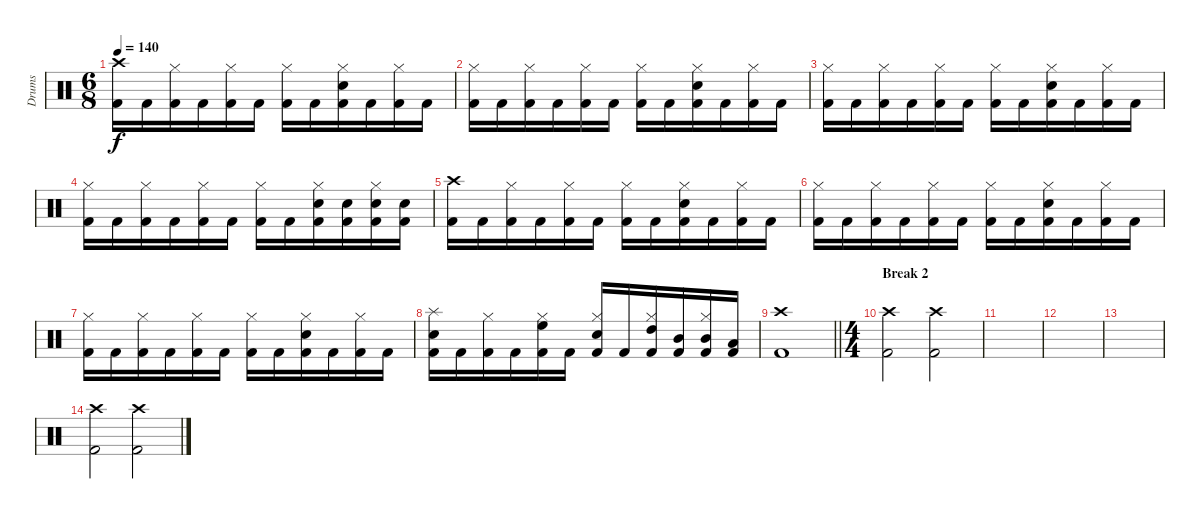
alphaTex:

\track ("Drums" "Drums") {instrument percussion}
\staff {score}
\articulation defaults
\ts (6 8)
\tempo 140
\clef neutral
\ks c
("Kick (hit) 2" "Crash high (hit)").16{dy f} "Kick (hit) 2".16 ("Kick (hit) 2" "Hi-Hat (closed)").16 "Kick (hit) 2".16 ("Kick (hit) 2" "Hi-Hat (closed)").16 "Kick (hit) 2".16 ("Kick (hit) 2" "Hi-Hat (closed)").16 "Kick (hit) 2".16 ("Kick (hit) 2" "Hi-Hat (closed)" "Electric Snare (hit)").16 "Kick (hit) 2".16 ("Kick (hit) 2" "Hi-Hat (closed)").16 "Kick (hit) 2".16 |
("Kick (hit) 2" "Hi-Hat (closed)").16 "Kick (hit) 2".16 ("Kick (hit) 2" "Hi-Hat (closed)").16 "Kick (hit) 2".16 ("Kick (hit) 2" "Hi-Hat (closed)").16 "Kick (hit) 2".16 ("Kick (hit) 2" "Hi-Hat (closed)").16 "Kick (hit) 2".16 ("Kick (hit) 2" "Hi-Hat (closed)" "Electric Snare (hit)").16 "Kick (hit) 2".16 ("Kick (hit) 2" "Hi-Hat (closed)").16 "Kick (hit) 2".16 |
("Kick (hit) 2" "Hi-Hat (closed)").16 "Kick (hit) 2".16 ("Kick (hit) 2" "Hi-Hat (closed)").16 "Kick (hit) 2".16 ("Kick (hit) 2" "Hi-Hat (closed)").16 "Kick (hit) 2".16 ("Kick (hit) 2" "Hi-Hat (closed)").16 "Kick (hit) 2".16 ("Kick (hit) 2" "Hi-Hat (closed)" "Electric Snare (hit)").16 "Kick (hit) 2".16 ("Kick (hit) 2" "Hi-Hat (closed)").16 "Kick (hit) 2".16 |
("Kick (hit) 2" "Hi-Hat (closed)").16 "Kick (hit) 2".16 ("Kick (hit) 2" "Hi-Hat (closed)").16 "Kick (hit) 2".16 ("Kick (hit) 2" "Hi-Hat (closed)").16 "Kick (hit) 2".16 ("Kick (hit) 2" "Hi-Hat (closed)").16 "Kick (hit) 2".16 ("Kick (hit) 2" "Hi-Hat (closed)" "Electric Snare (hit)").16 ("Kick (hit) 2" "Electric Snare (hit)").16 ("Kick (hit) 2" "Hi-Hat (closed)" "Electric Snare (hit)").16 ("Kick (hit) 2" "Electric Snare (hit)").16 |
("Kick (hit) 2" "Crash high (hit)").16 "Kick (hit) 2".16 ("Kick (hit) 2" "Hi-Hat (closed)").16 "Kick (hit) 2".16 ("Kick (hit) 2" "Hi-Hat (closed)").16 "Kick (hit) 2".16 ("Kick (hit) 2" "Hi-Hat (closed)").16 "Kick (hit) 2".16 ("Kick (hit) 2" "Hi-Hat (closed)" "Electric Snare (hit)").16 "Kick (hit) 2".16 ("Kick (hit) 2" "Hi-Hat (closed)").16 "Kick (hit) 2".16 |
("Kick (hit) 2" "Hi-Hat (closed)").16 "Kick (hit) 2".16 ("Kick (hit) 2" "Hi-Hat (closed)").16 "Kick (hit) 2".16 ("Kick (hit) 2" "Hi-Hat (closed)").16 "Kick (hit) 2".16 ("Kick (hit) 2" "Hi-Hat (closed)").16 "Kick (hit) 2".16 ("Kick (hit) 2" "Hi-Hat (closed)" "Electric Snare (hit)").16 "Kick (hit) 2".16 ("Kick (hit) 2" "Hi-Hat (closed)").16 "Kick (hit) 2".16 |
("Kick (hit) 2" "Hi-Hat (closed)").16 "Kick (hit) 2".16 ("Kick (hit) 2" "Hi-Hat (closed)").16 "Kick (hit) 2".16 ("Kick (hit) 2" "Hi-Hat (closed)").16 "Kick (hit) 2".16 ("Kick (hit) 2" "Hi-Hat (closed)").16 "Kick (hit) 2".16 ("Kick (hit) 2" "Hi-Hat (closed)" "Electric Snare (hit)").16 "Kick (hit) 2".16 ("Kick (hit) 2" "Hi-Hat (closed)").16 "Kick (hit) 2".16 |
("Kick (hit) 2" "Electric Snare (hit)" "Splash (hit)").16 "Kick (hit) 2".16 ("Kick (hit) 2" "Hi-Hat (closed)").16 "Kick (hit) 2".16 ("Kick (hit) 2" "Hi-Hat (closed)" "High Floor Tom (hit)").16 "Kick (hit) 2".16 ("Kick (hit) 2" "Hi-Hat (closed)" "Electric Snare (hit)").16 "Kick (hit) 2".16 ("Kick (hit) 2" "Hi-Hat (closed)" "High Tom (hit)").16 ("Kick (hit) 2" "Mid Tom (hit)").16 ("Kick (hit) 2" "Hi-Hat (closed)" "Mid Tom (hit)").16 ("Kick (hit) 2" "Low Tom (hit)").16 |
\barLineRight lightlight
("Kick (hit) 2" "Crash high (hit)").1 |
\ts (4 4)
\section ("" "Break 2")
("Kick (hit) 2" "Crash high (hit)").2 ("Kick (hit) 2" "Crash high (hit)").2 |
|
|
|
("Kick (hit) 2" "Crash high (hit)").2 ("Kick (hit) 2" "Crash high (hit)").2
